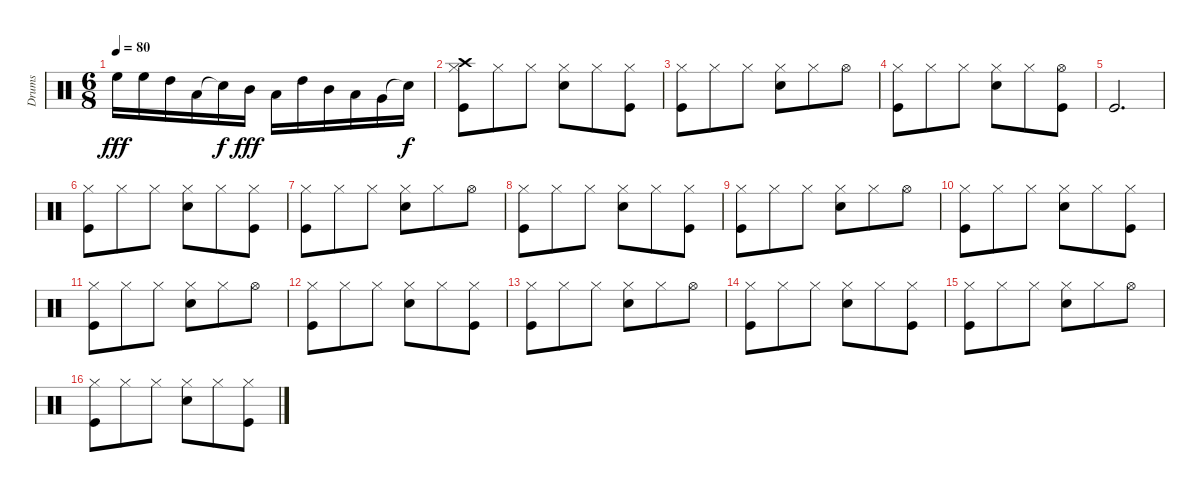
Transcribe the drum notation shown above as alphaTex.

\track ("Drums" "Drums") {instrument percussion}
\staff {score}
\articulation defaults
\ts (6 8)
\tempo 80
\clef neutral
\ks c "High Floor Tom (hit)".16{dy fff} "High Floor Tom (hit)".16 "High Tom (hit)".16 "Low Tom (hit)".16 "Snare (hit)"{t}.16{dy f} "Mid Tom (hit)".16{dy fff} "Low Tom (hit)".16 "High Tom (hit)".16 "Mid Tom (hit)".16 "Low Tom (hit)".16 "Very Low Tom (hit)".16 "Snare (hit)"{t}.16{dy f}
|
("Hi-Hat (closed)" "Kick (hit)" "Crash high (hit)").8 "Hi-Hat (closed)".8 "Hi-Hat (closed)".8 ("Hi-Hat (closed)" "Electric Snare (hit)").8 "Hi-Hat (closed)".8 ("Hi-Hat (closed)" "Kick (hit)").8 |
("Hi-Hat (closed)" "Kick (hit)").8 "Hi-Hat (closed)".8 "Hi-Hat (closed)".8 ("Hi-Hat (closed)" "Electric Snare (hit)").8 "Hi-Hat (closed)".8 "Hi-Hat (open)".8 |
("Hi-Hat (closed)" "Kick (hit)").8 "Hi-Hat (closed)".8 "Hi-Hat (closed)".8 ("Hi-Hat (closed)" "Electric Snare (hit)").8 "Hi-Hat (closed)".8 ("Hi-Hat (open)" "Kick (hit)").8 |
"Kick (hit)".2{d} |
("Hi-Hat (closed)" "Kick (hit)").8 "Hi-Hat (closed)".8 "Hi-Hat (closed)".8 ("Hi-Hat (closed)" "Electric Snare (hit)").8 "Hi-Hat (closed)".8 ("Hi-Hat (closed)" "Kick (hit)").8 |
("Hi-Hat (closed)" "Kick (hit)").8 "Hi-Hat (closed)".8 "Hi-Hat (closed)".8 ("Hi-Hat (closed)" "Electric Snare (hit)").8 "Hi-Hat (closed)".8 "Hi-Hat (open)".8 |
("Hi-Hat (closed)" "Kick (hit)").8 "Hi-Hat (closed)".8 "Hi-Hat (closed)".8 ("Hi-Hat (closed)" "Electric Snare (hit)").8 "Hi-Hat (closed)".8 ("Hi-Hat (closed)" "Kick (hit)").8 |
("Hi-Hat (closed)" "Kick (hit)").8 "Hi-Hat (closed)".8 "Hi-Hat (closed)".8 ("Hi-Hat (closed)" "Electric Snare (hit)").8 "Hi-Hat (closed)".8 "Hi-Hat (open)".8 |
("Hi-Hat (closed)" "Kick (hit)").8 "Hi-Hat (closed)".8 "Hi-Hat (closed)".8 ("Hi-Hat (closed)" "Electric Snare (hit)").8 "Hi-Hat (closed)".8 ("Hi-Hat (closed)" "Kick (hit)").8 |
("Hi-Hat (closed)" "Kick (hit)").8 "Hi-Hat (closed)".8 "Hi-Hat (closed)".8 ("Hi-Hat (closed)" "Electric Snare (hit)").8 "Hi-Hat (closed)".8 "Hi-Hat (open)".8 |
("Hi-Hat (closed)" "Kick (hit)").8 "Hi-Hat (closed)".8 "Hi-Hat (closed)".8 ("Hi-Hat (closed)" "Electric Snare (hit)").8 "Hi-Hat (closed)".8 ("Hi-Hat (closed)" "Kick (hit)").8 |
("Hi-Hat (closed)" "Kick (hit)").8 "Hi-Hat (closed)".8 "Hi-Hat (closed)".8 ("Hi-Hat (closed)" "Electric Snare (hit)").8 "Hi-Hat (closed)".8 "Hi-Hat (open)".8 |
("Hi-Hat (closed)" "Kick (hit)").8 "Hi-Hat (closed)".8 "Hi-Hat (closed)".8 ("Hi-Hat (closed)" "Electric Snare (hit)").8 "Hi-Hat (closed)".8 ("Hi-Hat (closed)" "Kick (hit)").8 |
("Hi-Hat (closed)" "Kick (hit)").8 "Hi-Hat (closed)".8 "Hi-Hat (closed)".8 ("Hi-Hat (closed)" "Electric Snare (hit)").8 "Hi-Hat (closed)".8 "Hi-Hat (open)".8 |
("Hi-Hat (closed)" "Kick (hit)").8 "Hi-Hat (closed)".8 "Hi-Hat (closed)".8 ("Hi-Hat (closed)" "Electric Snare (hit)").8 "Hi-Hat (closed)".8 ("Hi-Hat (closed)" "Kick (hit)").8
